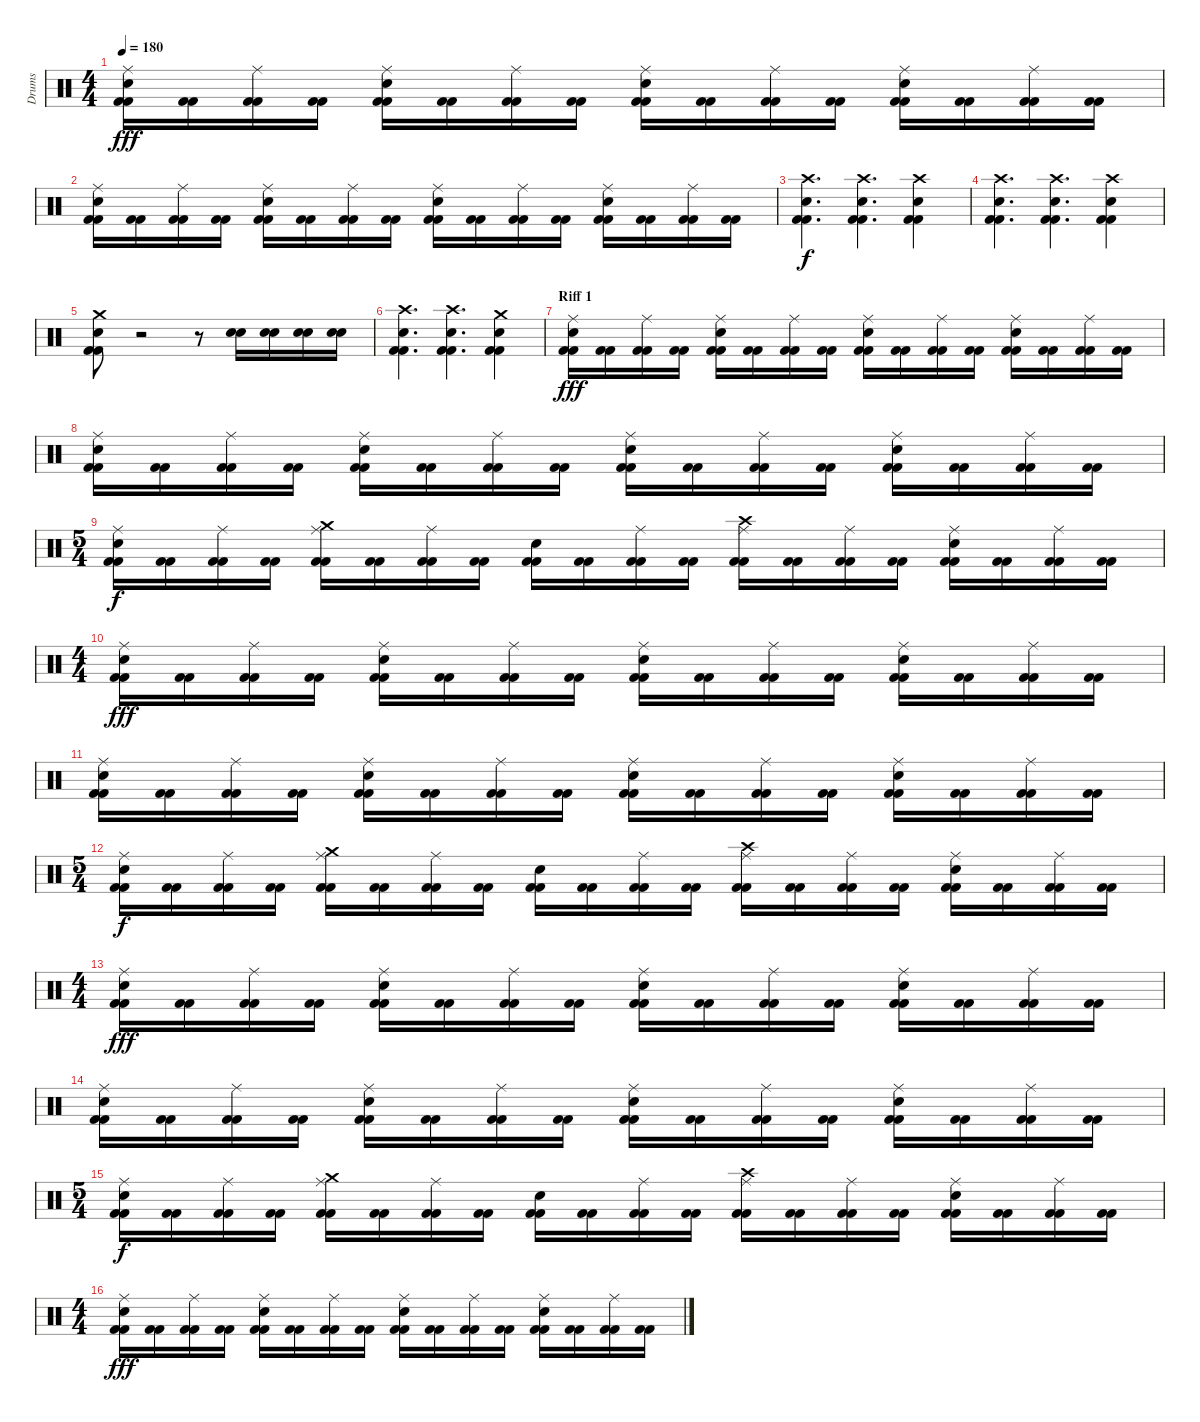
\track ("Drums" "Drums") {instrument percussion}
\staff {score}
\articulation defaults
\ts (4 4)
\tempo 180
\clef neutral
\ks c
("Kick (hit) 2" "Kick (hit) 2" "Electric Snare (hit)" "Ride (middle)").16{dy fff} ("Kick (hit) 2" "Kick (hit) 2").16 ("Kick (hit) 2" "Kick (hit) 2" "Ride (middle)").16 ("Kick (hit) 2" "Kick (hit) 2").16 ("Kick (hit) 2" "Kick (hit) 2" "Electric Snare (hit)" "Ride (middle)").16 ("Kick (hit) 2" "Kick (hit) 2").16 ("Kick (hit) 2" "Kick (hit) 2" "Ride (middle)").16 ("Kick (hit) 2" "Kick (hit) 2").16 ("Kick (hit) 2" "Kick (hit) 2" "Electric Snare (hit)" "Ride (middle)").16 ("Kick (hit) 2" "Kick (hit) 2").16 ("Kick (hit) 2" "Kick (hit) 2" "Ride (middle)").16 ("Kick (hit) 2" "Kick (hit) 2").16 ("Kick (hit) 2" "Kick (hit) 2" "Electric Snare (hit)" "Ride (middle)").16 ("Kick (hit) 2" "Kick (hit) 2").16 ("Kick (hit) 2" "Kick (hit) 2" "Ride (middle)").16 ("Kick (hit) 2" "Kick (hit) 2").16 |
("Kick (hit) 2" "Kick (hit) 2" "Electric Snare (hit)" "Ride (middle)").16 ("Kick (hit) 2" "Kick (hit) 2").16 ("Kick (hit) 2" "Kick (hit) 2" "Ride (middle)").16 ("Kick (hit) 2" "Kick (hit) 2").16 ("Kick (hit) 2" "Kick (hit) 2" "Electric Snare (hit)" "Ride (middle)").16 ("Kick (hit) 2" "Kick (hit) 2").16 ("Kick (hit) 2" "Kick (hit) 2" "Ride (middle)").16 ("Kick (hit) 2" "Kick (hit) 2").16 ("Kick (hit) 2" "Kick (hit) 2" "Electric Snare (hit)" "Ride (middle)").16 ("Kick (hit) 2" "Kick (hit) 2").16 ("Kick (hit) 2" "Kick (hit) 2" "Ride (middle)").16 ("Kick (hit) 2" "Kick (hit) 2").16 ("Kick (hit) 2" "Kick (hit) 2" "Electric Snare (hit)" "Ride (middle)").16 ("Kick (hit) 2" "Kick (hit) 2").16 ("Kick (hit) 2" "Kick (hit) 2" "Ride (middle)").16 ("Kick (hit) 2" "Kick (hit) 2").16 |
("Kick (hit) 2" "Kick (hit) 2" "Electric Snare (hit)" "Crash high (hit)").4{d dy f} ("Kick (hit) 2" "Kick (hit) 2" "Electric Snare (hit)" "Crash high (hit)").4{d} ("Kick (hit) 2" "Kick (hit) 2" "Electric Snare (hit)" "Crash high (hit)").4 |
("Kick (hit) 2" "Kick (hit) 2" "Electric Snare (hit)" "Crash high (hit)").4{d} ("Kick (hit) 2" "Kick (hit) 2" "Electric Snare (hit)" "Crash high (hit)").4{d} ("Kick (hit) 2" "Kick (hit) 2" "Electric Snare (hit)" "Crash high (hit)").4 |
("Kick (hit) 2" "Kick (hit) 2" "Electric Snare (hit)" "Crash medium (hit)").8 r.2 r.8 ("Snare (hit) 2" "Snare (hit) 2").16 ("Snare (hit) 2" "Snare (hit) 2").16 ("Snare (hit) 2" "Snare (hit) 2").16 ("Snare (hit) 2" "Snare (hit) 2").16 |
("Kick (hit) 2" "Kick (hit) 2" "Electric Snare (hit)" "Crash high (hit)").4{d} ("Kick (hit) 2" "Kick (hit) 2" "Electric Snare (hit)" "Crash high (hit)").4{d} ("Kick (hit) 2" "Kick (hit) 2" "Electric Snare (hit)" "Crash medium (hit)").4 |
\section ("" "Riff 1")
("Kick (hit) 2" "Kick (hit) 2" "Electric Snare (hit)" "Ride (middle)").16{dy fff} ("Kick (hit) 2" "Kick (hit) 2").16 ("Kick (hit) 2" "Kick (hit) 2" "Ride (middle)").16 ("Kick (hit) 2" "Kick (hit) 2").16 ("Kick (hit) 2" "Kick (hit) 2" "Electric Snare (hit)" "Ride (middle)").16 ("Kick (hit) 2" "Kick (hit) 2").16 ("Kick (hit) 2" "Kick (hit) 2" "Ride (middle)").16 ("Kick (hit) 2" "Kick (hit) 2").16 ("Kick (hit) 2" "Kick (hit) 2" "Electric Snare (hit)" "Ride (middle)").16 ("Kick (hit) 2" "Kick (hit) 2").16 ("Kick (hit) 2" "Kick (hit) 2" "Ride (middle)").16 ("Kick (hit) 2" "Kick (hit) 2").16 ("Kick (hit) 2" "Kick (hit) 2" "Electric Snare (hit)" "Ride (middle)").16 ("Kick (hit) 2" "Kick (hit) 2").16 ("Kick (hit) 2" "Kick (hit) 2" "Ride (middle)").16 ("Kick (hit) 2" "Kick (hit) 2").16 |
("Kick (hit) 2" "Kick (hit) 2" "Electric Snare (hit)" "Ride (middle)").16 ("Kick (hit) 2" "Kick (hit) 2").16 ("Kick (hit) 2" "Kick (hit) 2" "Ride (middle)").16 ("Kick (hit) 2" "Kick (hit) 2").16 ("Kick (hit) 2" "Kick (hit) 2" "Electric Snare (hit)" "Ride (middle)").16 ("Kick (hit) 2" "Kick (hit) 2").16 ("Kick (hit) 2" "Kick (hit) 2" "Ride (middle)").16 ("Kick (hit) 2" "Kick (hit) 2").16 ("Kick (hit) 2" "Kick (hit) 2" "Electric Snare (hit)" "Ride (middle)").16 ("Kick (hit) 2" "Kick (hit) 2").16 ("Kick (hit) 2" "Kick (hit) 2" "Ride (middle)").16 ("Kick (hit) 2" "Kick (hit) 2").16 ("Kick (hit) 2" "Kick (hit) 2" "Electric Snare (hit)" "Ride (middle)").16 ("Kick (hit) 2" "Kick (hit) 2").16 ("Kick (hit) 2" "Kick (hit) 2" "Ride (middle)").16 ("Kick (hit) 2" "Kick (hit) 2").16 |
\ts (5 4)
("Kick (hit) 2" "Kick (hit) 2" "Electric Snare (hit)" "Ride (middle)").16{dy f} ("Kick (hit) 2" "Kick (hit) 2").16 ("Kick (hit) 2" "Kick (hit) 2" "Ride (middle)").16 ("Kick (hit) 2" "Kick (hit) 2").16 ("Kick (hit) 2" "Kick (hit) 2" "Crash medium (hit)" "Ride (middle)").16 ("Kick (hit) 2" "Kick (hit) 2").16 ("Kick (hit) 2" "Kick (hit) 2" "Ride (middle)").16 ("Kick (hit) 2" "Kick (hit) 2").16 ("Kick (hit) 2" "Kick (hit) 2" "Snare (hit) 2").16 ("Kick (hit) 2" "Kick (hit) 2").16 ("Kick (hit) 2" "Kick (hit) 2" "Ride (middle)").16 ("Kick (hit) 2" "Kick (hit) 2").16 ("Kick (hit) 2" "Kick (hit) 2" "Crash high (hit)" "Ride (middle)").16 ("Kick (hit) 2" "Kick (hit) 2").16 ("Kick (hit) 2" "Kick (hit) 2" "Ride (middle)").16 ("Kick (hit) 2" "Kick (hit) 2").16 ("Kick (hit) 2" "Kick (hit) 2" "Electric Snare (hit)" "Ride (middle)").16 ("Kick (hit) 2" "Kick (hit) 2").16 ("Kick (hit) 2" "Kick (hit) 2" "Ride (middle)").16 ("Kick (hit) 2" "Kick (hit) 2").16 |
\ts (4 4)
("Kick (hit) 2" "Kick (hit) 2" "Electric Snare (hit)" "Ride (middle)").16{dy fff} ("Kick (hit) 2" "Kick (hit) 2").16 ("Kick (hit) 2" "Kick (hit) 2" "Ride (middle)").16 ("Kick (hit) 2" "Kick (hit) 2").16 ("Kick (hit) 2" "Kick (hit) 2" "Electric Snare (hit)" "Ride (middle)").16 ("Kick (hit) 2" "Kick (hit) 2").16 ("Kick (hit) 2" "Kick (hit) 2" "Ride (middle)").16 ("Kick (hit) 2" "Kick (hit) 2").16 ("Kick (hit) 2" "Kick (hit) 2" "Electric Snare (hit)" "Ride (middle)").16 ("Kick (hit) 2" "Kick (hit) 2").16 ("Kick (hit) 2" "Kick (hit) 2" "Ride (middle)").16 ("Kick (hit) 2" "Kick (hit) 2").16 ("Kick (hit) 2" "Kick (hit) 2" "Electric Snare (hit)" "Ride (middle)").16 ("Kick (hit) 2" "Kick (hit) 2").16 ("Kick (hit) 2" "Kick (hit) 2" "Ride (middle)").16 ("Kick (hit) 2" "Kick (hit) 2").16 |
("Kick (hit) 2" "Kick (hit) 2" "Electric Snare (hit)" "Ride (middle)").16 ("Kick (hit) 2" "Kick (hit) 2").16 ("Kick (hit) 2" "Kick (hit) 2" "Ride (middle)").16 ("Kick (hit) 2" "Kick (hit) 2").16 ("Kick (hit) 2" "Kick (hit) 2" "Electric Snare (hit)" "Ride (middle)").16 ("Kick (hit) 2" "Kick (hit) 2").16 ("Kick (hit) 2" "Kick (hit) 2" "Ride (middle)").16 ("Kick (hit) 2" "Kick (hit) 2").16 ("Kick (hit) 2" "Kick (hit) 2" "Electric Snare (hit)" "Ride (middle)").16 ("Kick (hit) 2" "Kick (hit) 2").16 ("Kick (hit) 2" "Kick (hit) 2" "Ride (middle)").16 ("Kick (hit) 2" "Kick (hit) 2").16 ("Kick (hit) 2" "Kick (hit) 2" "Electric Snare (hit)" "Ride (middle)").16 ("Kick (hit) 2" "Kick (hit) 2").16 ("Kick (hit) 2" "Kick (hit) 2" "Ride (middle)").16 ("Kick (hit) 2" "Kick (hit) 2").16 |
\ts (5 4)
("Kick (hit) 2" "Kick (hit) 2" "Electric Snare (hit)" "Ride (middle)").16{dy f} ("Kick (hit) 2" "Kick (hit) 2").16 ("Kick (hit) 2" "Kick (hit) 2" "Ride (middle)").16 ("Kick (hit) 2" "Kick (hit) 2").16 ("Kick (hit) 2" "Kick (hit) 2" "Crash medium (hit)" "Ride (middle)").16 ("Kick (hit) 2" "Kick (hit) 2").16 ("Kick (hit) 2" "Kick (hit) 2" "Ride (middle)").16 ("Kick (hit) 2" "Kick (hit) 2").16 ("Kick (hit) 2" "Kick (hit) 2" "Snare (hit) 2").16 ("Kick (hit) 2" "Kick (hit) 2").16 ("Kick (hit) 2" "Kick (hit) 2" "Ride (middle)").16 ("Kick (hit) 2" "Kick (hit) 2").16 ("Kick (hit) 2" "Kick (hit) 2" "Crash high (hit)" "Ride (middle)").16 ("Kick (hit) 2" "Kick (hit) 2").16 ("Kick (hit) 2" "Kick (hit) 2" "Ride (middle)").16 ("Kick (hit) 2" "Kick (hit) 2").16 ("Kick (hit) 2" "Kick (hit) 2" "Snare (hit) 2" "Ride (middle)").16 ("Kick (hit) 2" "Kick (hit) 2").16 ("Kick (hit) 2" "Kick (hit) 2" "Ride (middle)").16 ("Kick (hit) 2" "Kick (hit) 2").16 |
\ts (4 4)
("Kick (hit) 2" "Kick (hit) 2" "Electric Snare (hit)" "Ride (middle)").16{dy fff} ("Kick (hit) 2" "Kick (hit) 2").16 ("Kick (hit) 2" "Kick (hit) 2" "Ride (middle)").16 ("Kick (hit) 2" "Kick (hit) 2").16 ("Kick (hit) 2" "Kick (hit) 2" "Electric Snare (hit)" "Ride (middle)").16 ("Kick (hit) 2" "Kick (hit) 2").16 ("Kick (hit) 2" "Kick (hit) 2" "Ride (middle)").16 ("Kick (hit) 2" "Kick (hit) 2").16 ("Kick (hit) 2" "Kick (hit) 2" "Electric Snare (hit)" "Ride (middle)").16 ("Kick (hit) 2" "Kick (hit) 2").16 ("Kick (hit) 2" "Kick (hit) 2" "Ride (middle)").16 ("Kick (hit) 2" "Kick (hit) 2").16 ("Kick (hit) 2" "Kick (hit) 2" "Electric Snare (hit)" "Ride (middle)").16 ("Kick (hit) 2" "Kick (hit) 2").16 ("Kick (hit) 2" "Kick (hit) 2" "Ride (middle)").16 ("Kick (hit) 2" "Kick (hit) 2").16 |
("Kick (hit) 2" "Kick (hit) 2" "Electric Snare (hit)" "Ride (middle)").16 ("Kick (hit) 2" "Kick (hit) 2").16 ("Kick (hit) 2" "Kick (hit) 2" "Ride (middle)").16 ("Kick (hit) 2" "Kick (hit) 2").16 ("Kick (hit) 2" "Kick (hit) 2" "Electric Snare (hit)" "Ride (middle)").16 ("Kick (hit) 2" "Kick (hit) 2").16 ("Kick (hit) 2" "Kick (hit) 2" "Ride (middle)").16 ("Kick (hit) 2" "Kick (hit) 2").16 ("Kick (hit) 2" "Kick (hit) 2" "Electric Snare (hit)" "Ride (middle)").16 ("Kick (hit) 2" "Kick (hit) 2").16 ("Kick (hit) 2" "Kick (hit) 2" "Ride (middle)").16 ("Kick (hit) 2" "Kick (hit) 2").16 ("Kick (hit) 2" "Kick (hit) 2" "Electric Snare (hit)" "Ride (middle)").16 ("Kick (hit) 2" "Kick (hit) 2").16 ("Kick (hit) 2" "Kick (hit) 2" "Ride (middle)").16 ("Kick (hit) 2" "Kick (hit) 2").16 |
\ts (5 4)
("Kick (hit) 2" "Kick (hit) 2" "Electric Snare (hit)" "Ride (middle)").16{dy f} ("Kick (hit) 2" "Kick (hit) 2").16 ("Kick (hit) 2" "Kick (hit) 2" "Ride (middle)").16 ("Kick (hit) 2" "Kick (hit) 2").16 ("Kick (hit) 2" "Kick (hit) 2" "Crash medium (hit)" "Ride (middle)").16 ("Kick (hit) 2" "Kick (hit) 2").16 ("Kick (hit) 2" "Kick (hit) 2" "Ride (middle)").16 ("Kick (hit) 2" "Kick (hit) 2").16 ("Kick (hit) 2" "Kick (hit) 2" "Snare (hit) 2").16 ("Kick (hit) 2" "Kick (hit) 2").16 ("Kick (hit) 2" "Kick (hit) 2" "Ride (middle)").16 ("Kick (hit) 2" "Kick (hit) 2").16 ("Kick (hit) 2" "Kick (hit) 2" "Crash high (hit)" "Ride (middle)").16 ("Kick (hit) 2" "Kick (hit) 2").16 ("Kick (hit) 2" "Kick (hit) 2" "Ride (middle)").16 ("Kick (hit) 2" "Kick (hit) 2").16 ("Kick (hit) 2" "Kick (hit) 2" "Electric Snare (hit)" "Ride (middle)").16 ("Kick (hit) 2" "Kick (hit) 2").16 ("Kick (hit) 2" "Kick (hit) 2" "Ride (middle)").16 ("Kick (hit) 2" "Kick (hit) 2").16 |
\ts (4 4)
("Kick (hit) 2" "Kick (hit) 2" "Electric Snare (hit)" "Ride (middle)").16{dy fff} ("Kick (hit) 2" "Kick (hit) 2").16 ("Kick (hit) 2" "Kick (hit) 2" "Ride (middle)").16 ("Kick (hit) 2" "Kick (hit) 2").16 ("Kick (hit) 2" "Kick (hit) 2" "Electric Snare (hit)" "Ride (middle)").16 ("Kick (hit) 2" "Kick (hit) 2").16 ("Kick (hit) 2" "Kick (hit) 2" "Ride (middle)").16 ("Kick (hit) 2" "Kick (hit) 2").16 ("Kick (hit) 2" "Kick (hit) 2" "Electric Snare (hit)" "Ride (middle)").16 ("Kick (hit) 2" "Kick (hit) 2").16 ("Kick (hit) 2" "Kick (hit) 2" "Ride (middle)").16 ("Kick (hit) 2" "Kick (hit) 2").16 ("Kick (hit) 2" "Kick (hit) 2" "Electric Snare (hit)" "Ride (middle)").16 ("Kick (hit) 2" "Kick (hit) 2").16 ("Kick (hit) 2" "Kick (hit) 2" "Ride (middle)").16 ("Kick (hit) 2" "Kick (hit) 2").16
